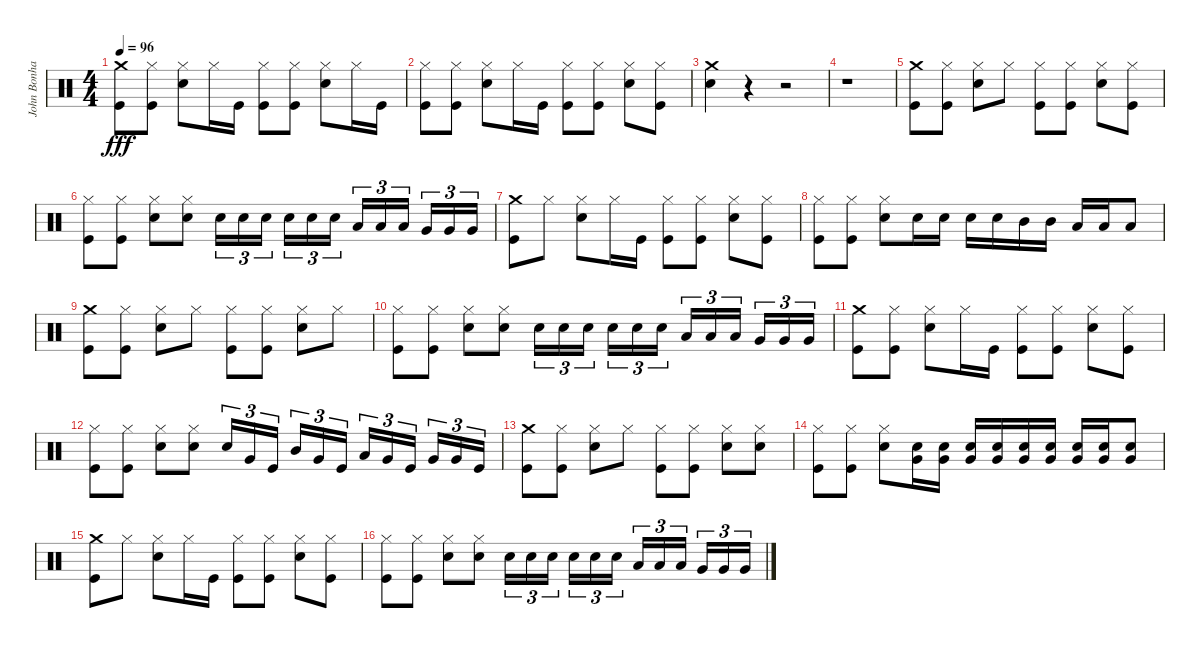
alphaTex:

\track ("John Bonham - Drums" "John Bonha") {instrument percussion}
\staff {score}
\articulation defaults
\ts (4 4)
\tempo 96
\clef neutral
\ks c
("Crash medium (hit)" "Kick (hit)").8{dy fff} ("Hi-Hat (closed)" "Kick (hit)").8 ("Hi-Hat (closed)" "Snare (hit) 2").8 "Hi-Hat (closed)".16 "Kick (hit)".16 ("Hi-Hat (closed)" "Kick (hit)").8 ("Hi-Hat (closed)" "Kick (hit)").8 ("Hi-Hat (closed)" "Snare (hit) 2").8 "Hi-Hat (closed)".16 "Kick (hit)".16 |
("Hi-Hat (closed)" "Kick (hit)").8 ("Hi-Hat (closed)" "Kick (hit)").8 ("Hi-Hat (closed)" "Snare (hit) 2").8 "Hi-Hat (closed)".16 "Kick (hit)".16 ("Hi-Hat (closed)" "Kick (hit)").8 ("Hi-Hat (closed)" "Kick (hit)").8 ("Hi-Hat (closed)" "Snare (hit) 2").8 ("Hi-Hat (closed)" "Kick (hit)").8 |
("Crash medium (hit)" "Snare (hit) 2").4 r.4 r.2 |
r.1 |
("Crash medium (hit)" "Kick (hit)").8 ("Hi-Hat (closed)" "Kick (hit)").8 ("Hi-Hat (closed)" "Snare (hit) 2").8 "Hi-Hat (closed)".8 ("Hi-Hat (closed)" "Kick (hit)").8 ("Hi-Hat (closed)" "Kick (hit)").8 ("Hi-Hat (closed)" "Snare (hit) 2").8 ("Hi-Hat (closed)" "Kick (hit)").8 |
("Hi-Hat (closed)" "Kick (hit)").8 ("Hi-Hat (closed)" "Kick (hit)").8 ("Hi-Hat (closed)" "Snare (hit) 2").8 ("Hi-Hat (closed)" "Snare (hit) 2").8 "Snare (hit) 2".16{tu (3 2)} "Snare (hit) 2".16{tu (3 2)} "Snare (hit) 2".16{tu (3 2) beam splitsecondary} "Snare (hit) 2".16{tu (3 2)} "Snare (hit) 2".16{tu (3 2)} "Snare (hit) 2".16{tu (3 2)} "Low Tom (hit)".16{tu (3 2)} "Low Tom (hit)".16{tu (3 2)} "Low Tom (hit)".16{tu (3 2) beam splitsecondary} "Very Low Tom (hit)".16{tu (3 2)} "Very Low Tom (hit)".16{tu (3 2)} "Very Low Tom (hit)".16{tu (3 2)} |
("Crash medium (hit)" "Kick (hit)").8 "Hi-Hat (closed)".8 ("Hi-Hat (closed)" "Snare (hit) 2").8 "Hi-Hat (closed)".16 "Kick (hit)".16 ("Hi-Hat (closed)" "Kick (hit)").8 ("Hi-Hat (closed)" "Kick (hit)").8 ("Hi-Hat (closed)" "Snare (hit) 2").8 ("Hi-Hat (closed)" "Kick (hit)").8 |
("Hi-Hat (closed)" "Kick (hit)").8 ("Hi-Hat (closed)" "Kick (hit)").8 ("Hi-Hat (closed)" "Snare (hit) 2").8 "Snare (hit) 2".16 "Snare (hit) 2".16 "Snare (hit) 2".16 "Snare (hit) 2".16 "Mid Tom (hit)".16 "Mid Tom (hit)".16 "Low Tom (hit)".16 "Low Tom (hit)".16 "Low Tom (hit)".8 |
("Crash medium (hit)" "Kick (hit)").8 ("Hi-Hat (closed)" "Kick (hit)").8 ("Hi-Hat (closed)" "Snare (hit) 2").8 "Hi-Hat (closed)".8 ("Hi-Hat (closed)" "Kick (hit)").8 ("Hi-Hat (closed)" "Kick (hit)").8 ("Hi-Hat (closed)" "Snare (hit) 2").8 "Hi-Hat (closed)".8 |
("Hi-Hat (closed)" "Kick (hit)").8 ("Hi-Hat (closed)" "Kick (hit)").8 ("Hi-Hat (closed)" "Snare (hit) 2").8 ("Hi-Hat (closed)" "Snare (hit) 2").8 "Snare (hit) 2".16{tu (3 2)} "Snare (hit) 2".16{tu (3 2)} "Snare (hit) 2".16{tu (3 2) beam splitsecondary} "Snare (hit) 2".16{tu (3 2)} "Snare (hit) 2".16{tu (3 2)} "Snare (hit) 2".16{tu (3 2)} "Low Tom (hit)".16{tu (3 2)} "Low Tom (hit)".16{tu (3 2)} "Low Tom (hit)".16{tu (3 2) beam splitsecondary} "Very Low Tom (hit)".16{tu (3 2)} "Very Low Tom (hit)".16{tu (3 2)} "Very Low Tom (hit)".16{tu (3 2)} |
("Crash medium (hit)" "Kick (hit)").8 ("Hi-Hat (closed)" "Kick (hit)").8 ("Hi-Hat (closed)" "Snare (hit) 2").8 "Hi-Hat (closed)".16 "Kick (hit)".16 ("Hi-Hat (closed)" "Kick (hit)").8 ("Hi-Hat (closed)" "Kick (hit)").8 ("Hi-Hat (closed)" "Snare (hit) 2").8 ("Hi-Hat (closed)" "Kick (hit)").8 |
("Hi-Hat (closed)" "Kick (hit)").8 ("Hi-Hat (closed)" "Kick (hit)").8 ("Hi-Hat (closed)" "Snare (hit) 2").8 ("Hi-Hat (closed)" "Snare (hit) 2").8 "Snare (hit) 2".16{tu (3 2)} "Very Low Tom (hit)".16{tu (3 2)} "Kick (hit)".16{tu (3 2) beam splitsecondary} "Mid Tom (hit)".16{tu (3 2)} "Very Low Tom (hit)".16{tu (3 2)} "Kick (hit)".16{tu (3 2)} "Low Tom (hit)".16{tu (3 2)} "Very Low Tom (hit)".16{tu (3 2)} "Kick (hit)".16{tu (3 2) beam splitsecondary} "Very Low Tom (hit)".16{tu (3 2)} "Very Low Tom (hit)".16{tu (3 2)} "Kick (hit)".16{tu (3 2)} |
("Crash medium (hit)" "Kick (hit)").8 ("Hi-Hat (closed)" "Kick (hit)").8 ("Hi-Hat (closed)" "Snare (hit) 2").8 "Hi-Hat (closed)".8 ("Hi-Hat (closed)" "Kick (hit)").8 ("Hi-Hat (closed)" "Kick (hit)").8 ("Hi-Hat (closed)" "Snare (hit) 2").8 ("Hi-Hat (closed)" "Snare (hit) 2").8 |
("Hi-Hat (closed)" "Kick (hit)").8 ("Hi-Hat (closed)" "Kick (hit)").8 ("Hi-Hat (closed)" "Snare (hit) 2").8 ("Snare (hit) 2" "Very Low Tom (hit)").16 ("Snare (hit) 2" "Very Low Tom (hit)").16 ("Snare (hit) 2" "Very Low Tom (hit)").16 ("Snare (hit) 2" "Very Low Tom (hit)").16 ("Snare (hit) 2" "Very Low Tom (hit)").16 ("Snare (hit) 2" "Very Low Tom (hit)").16 ("Snare (hit) 2" "Very Low Tom (hit)").16 ("Snare (hit) 2" "Very Low Tom (hit)").16 ("Snare (hit) 2" "Very Low Tom (hit)").8 |
("Crash medium (hit)" "Kick (hit)").8 "Hi-Hat (closed)".8 ("Hi-Hat (closed)" "Snare (hit) 2").8 "Hi-Hat (closed)".16 "Kick (hit)".16 ("Hi-Hat (closed)" "Kick (hit)").8 ("Hi-Hat (closed)" "Kick (hit)").8 ("Hi-Hat (closed)" "Snare (hit) 2").8 ("Hi-Hat (closed)" "Kick (hit)").8 |
("Hi-Hat (closed)" "Kick (hit)").8 ("Hi-Hat (closed)" "Kick (hit)").8 ("Hi-Hat (closed)" "Snare (hit) 2").8 ("Hi-Hat (closed)" "Snare (hit) 2").8 "Snare (hit) 2".16{tu (3 2)} "Snare (hit) 2".16{tu (3 2)} "Snare (hit) 2".16{tu (3 2) beam splitsecondary} "Snare (hit) 2".16{tu (3 2)} "Snare (hit) 2".16{tu (3 2)} "Snare (hit) 2".16{tu (3 2)} "Low Tom (hit)".16{tu (3 2)} "Low Tom (hit)".16{tu (3 2)} "Low Tom (hit)".16{tu (3 2) beam splitsecondary} "Very Low Tom (hit)".16{tu (3 2)} "Very Low Tom (hit)".16{tu (3 2)} "Very Low Tom (hit)".16{tu (3 2)}
